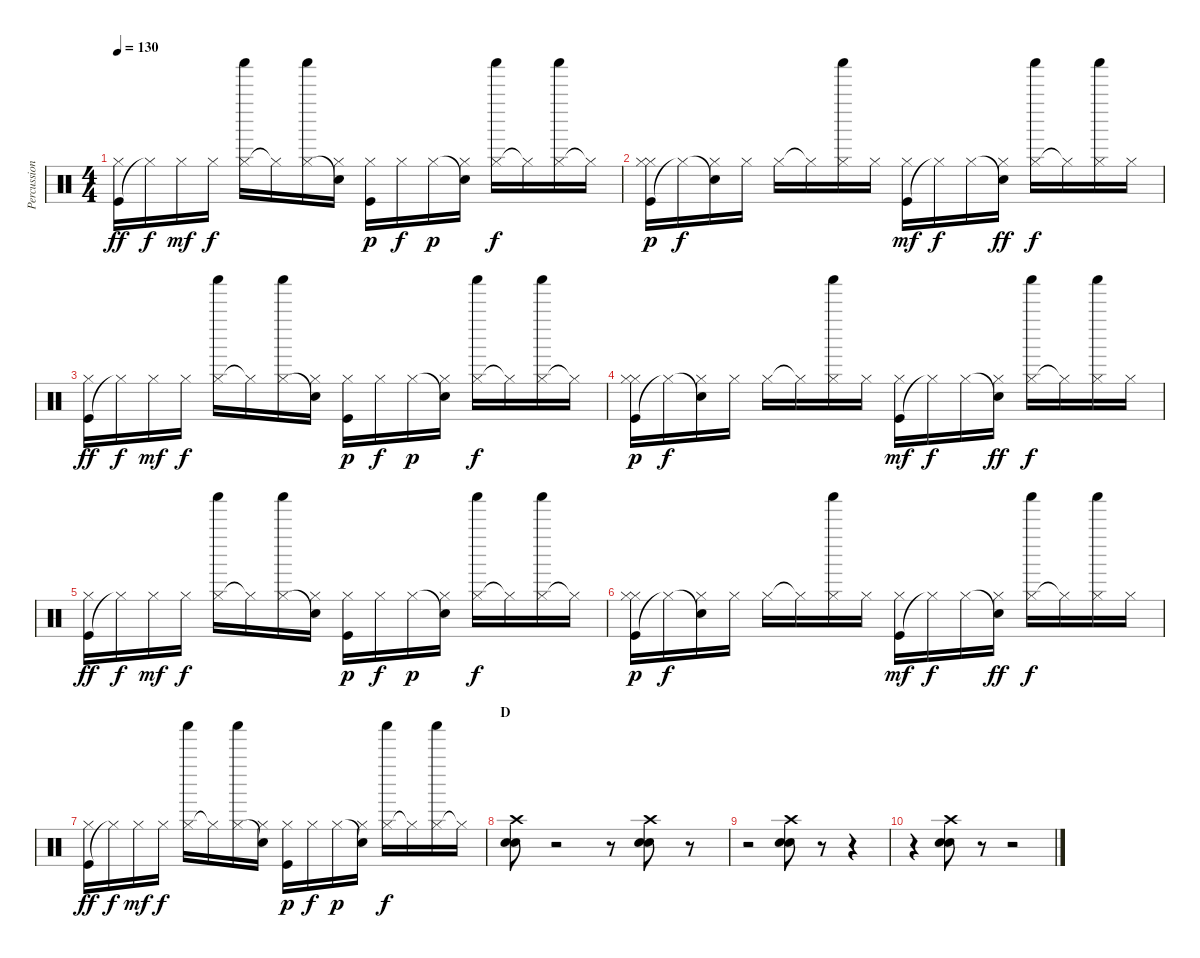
\track ("Percussion" "Percussion") {instrument percussion}
\staff {score}
\articulation defaults
\ts (4 4)
\tempo 130
\clef neutral
\ks c
("Kick (hit)" "Hi-Hat (closed)").16{dy ff} "Hi-Hat (closed)"{t}.16{dy f} "Hi-Hat (closed)".16{dy mf} "Hi-Hat (closed)".16{dy f} ("Hi-Hat (closed)" "Shaker (hit)").16 "Hi-Hat (closed)"{t}.16 ("Hi-Hat (closed)" "Shaker (hit)").16 ("Snare (hit)"{t} "Hi-Hat (closed)").16 ("Kick (hit)" "Hi-Hat (closed)").16{dy p} "Hi-Hat (closed)".16{dy f} "Hi-Hat (closed)".16{dy p} ("Snare (hit)"{t} "Hi-Hat (closed)").16 ("Hi-Hat (closed)" "Shaker (hit)").16{dy f} "Hi-Hat (closed)"{t}.16 ("Hi-Hat (closed)" "Shaker (hit)").16 "Hi-Hat (closed)"{t}.16 |
("Kick (hit)" "Hi-Hat (closed)" "Hi-Hat (closed)").16{dy p} "Hi-Hat (closed)"{t}.16{dy f} ("Snare (hit)"{t} "Hi-Hat (closed)").16 "Hi-Hat (closed)".16 "Hi-Hat (closed)".16 "Hi-Hat (closed)"{t}.16 ("Hi-Hat (closed)" "Shaker (hit)").16 "Hi-Hat (closed)".16 ("Kick (hit)" "Hi-Hat (closed)").16{dy mf} "Hi-Hat (closed)"{t}.16{dy f} "Hi-Hat (closed)".16 ("Snare (hit)"{t} "Hi-Hat (closed)").16{dy ff} ("Hi-Hat (closed)" "Shaker (hit)").16{dy f} "Hi-Hat (closed)"{t}.16 ("Hi-Hat (closed)" "Shaker (hit)").16 "Hi-Hat (closed)".16 |
("Kick (hit)" "Hi-Hat (closed)").16{dy ff} "Hi-Hat (closed)"{t}.16{dy f} "Hi-Hat (closed)".16{dy mf} "Hi-Hat (closed)".16{dy f} ("Hi-Hat (closed)" "Shaker (hit)").16 "Hi-Hat (closed)"{t}.16 ("Hi-Hat (closed)" "Shaker (hit)").16 ("Snare (hit)"{t} "Hi-Hat (closed)").16 ("Kick (hit)" "Hi-Hat (closed)").16{dy p} "Hi-Hat (closed)".16{dy f} "Hi-Hat (closed)".16{dy p} ("Snare (hit)"{t} "Hi-Hat (closed)").16 ("Hi-Hat (closed)" "Shaker (hit)").16{dy f} "Hi-Hat (closed)"{t}.16 ("Hi-Hat (closed)" "Shaker (hit)").16 "Hi-Hat (closed)"{t}.16 |
("Kick (hit)" "Hi-Hat (closed)" "Hi-Hat (closed)").16{dy p} "Hi-Hat (closed)"{t}.16{dy f} ("Snare (hit)"{t} "Hi-Hat (closed)").16 "Hi-Hat (closed)".16 "Hi-Hat (closed)".16 "Hi-Hat (closed)"{t}.16 ("Hi-Hat (closed)" "Shaker (hit)").16 "Hi-Hat (closed)".16 ("Kick (hit)" "Hi-Hat (closed)").16{dy mf} "Hi-Hat (closed)"{t}.16{dy f} "Hi-Hat (closed)".16 ("Snare (hit)"{t} "Hi-Hat (closed)").16{dy ff} ("Hi-Hat (closed)" "Shaker (hit)").16{dy f} "Hi-Hat (closed)"{t}.16 ("Hi-Hat (closed)" "Shaker (hit)").16 "Hi-Hat (closed)".16 |
("Kick (hit)" "Hi-Hat (closed)").16{dy ff} "Hi-Hat (closed)"{t}.16{dy f} "Hi-Hat (closed)".16{dy mf} "Hi-Hat (closed)".16{dy f} ("Hi-Hat (closed)" "Shaker (hit)").16 "Hi-Hat (closed)"{t}.16 ("Hi-Hat (closed)" "Shaker (hit)").16 ("Snare (hit)"{t} "Hi-Hat (closed)").16 ("Kick (hit)" "Hi-Hat (closed)").16{dy p} "Hi-Hat (closed)".16{dy f} "Hi-Hat (closed)".16{dy p} ("Snare (hit)"{t} "Hi-Hat (closed)").16 ("Hi-Hat (closed)" "Shaker (hit)").16{dy f} "Hi-Hat (closed)"{t}.16 ("Hi-Hat (closed)" "Shaker (hit)").16 "Hi-Hat (closed)"{t}.16 |
("Kick (hit)" "Hi-Hat (closed)" "Hi-Hat (closed)").16{dy p} "Hi-Hat (closed)"{t}.16{dy f} ("Snare (hit)"{t} "Hi-Hat (closed)").16 "Hi-Hat (closed)".16 "Hi-Hat (closed)".16 "Hi-Hat (closed)"{t}.16 ("Hi-Hat (closed)" "Shaker (hit)").16 "Hi-Hat (closed)".16 ("Kick (hit)" "Hi-Hat (closed)").16{dy mf} "Hi-Hat (closed)"{t}.16{dy f} "Hi-Hat (closed)".16 ("Snare (hit)"{t} "Hi-Hat (closed)").16{dy ff} ("Hi-Hat (closed)" "Shaker (hit)").16{dy f} "Hi-Hat (closed)"{t}.16 ("Hi-Hat (closed)" "Shaker (hit)").16 "Hi-Hat (closed)".16 |
("Kick (hit)" "Hi-Hat (closed)").16{dy ff} "Hi-Hat (closed)"{t}.16{dy f} "Hi-Hat (closed)".16{dy mf} "Hi-Hat (closed)".16{dy f} ("Hi-Hat (closed)" "Shaker (hit)").16 "Hi-Hat (closed)"{t}.16 ("Hi-Hat (closed)" "Shaker (hit)").16 ("Snare (hit)"{t} "Hi-Hat (closed)").16 ("Kick (hit)" "Hi-Hat (closed)").16{dy p} "Hi-Hat (closed)".16{dy f} "Hi-Hat (closed)".16{dy p} ("Snare (hit)"{t} "Hi-Hat (closed)").16 ("Hi-Hat (closed)" "Shaker (hit)").16{dy f} "Hi-Hat (closed)"{t}.16 ("Hi-Hat (closed)" "Shaker (hit)").16 "Hi-Hat (closed)"{t}.16 |
\section ("" "D")
("Crash high (hit)" "Electric Snare (hit)" "Snare (hit) 2").8 r.2 r.8 ("Crash high (hit)" "Electric Snare (hit)" "Snare (hit) 2").8 r.8 |
r.2 ("Crash high (hit)" "Electric Snare (hit)" "Snare (hit) 2").8 r.8 r.4 |
r.4 ("Crash high (hit)" "Electric Snare (hit)" "Snare (hit) 2").8 r.8 r.2
